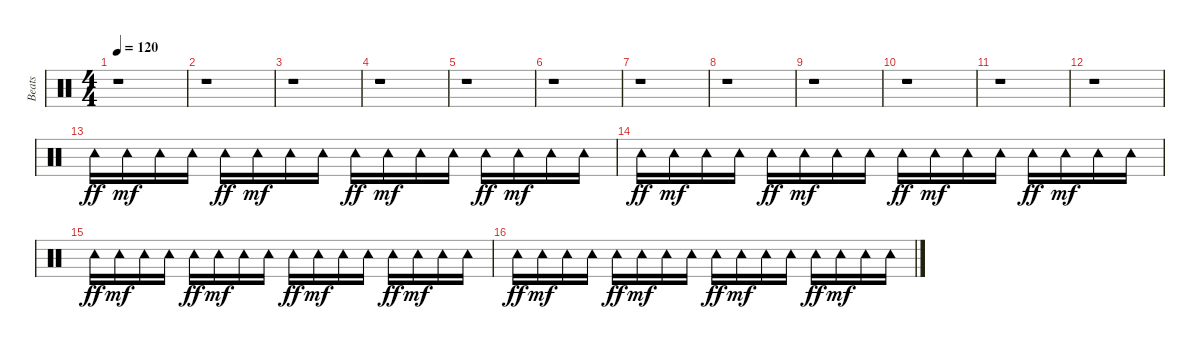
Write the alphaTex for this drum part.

\track ("Beats" "Beats") {instrument percussion}
\staff {score}
\articulation defaults
\ts (4 4)
\tempo 120
\clef neutral
\ks c
r.1{dy mf} |
r.1 |
r.1 |
r.1 |
r.1 |
r.1 |
r.1 |
r.1 |
r.1 |
r.1 |
r.1 |
r.1 |
"Tambourine (hit)".16{dy ff} "Tambourine (hit)".16{dy mf} "Tambourine (hit)".16 "Tambourine (hit)".16 "Tambourine (hit)".16{dy ff} "Tambourine (hit)".16{dy mf} "Tambourine (hit)".16 "Tambourine (hit)".16 "Tambourine (hit)".16{dy ff} "Tambourine (hit)".16{dy mf} "Tambourine (hit)".16 "Tambourine (hit)".16 "Tambourine (hit)".16{dy ff} "Tambourine (hit)".16{dy mf} "Tambourine (hit)".16 "Tambourine (hit)".16 |
"Tambourine (hit)".16{dy ff} "Tambourine (hit)".16{dy mf} "Tambourine (hit)".16 "Tambourine (hit)".16 "Tambourine (hit)".16{dy ff} "Tambourine (hit)".16{dy mf} "Tambourine (hit)".16 "Tambourine (hit)".16 "Tambourine (hit)".16{dy ff} "Tambourine (hit)".16{dy mf} "Tambourine (hit)".16 "Tambourine (hit)".16 "Tambourine (hit)".16{dy ff} "Tambourine (hit)".16{dy mf} "Tambourine (hit)".16 "Tambourine (hit)".16 |
"Tambourine (hit)".16{dy ff} "Tambourine (hit)".16{dy mf} "Tambourine (hit)".16 "Tambourine (hit)".16 "Tambourine (hit)".16{dy ff} "Tambourine (hit)".16{dy mf} "Tambourine (hit)".16 "Tambourine (hit)".16 "Tambourine (hit)".16{dy ff} "Tambourine (hit)".16{dy mf} "Tambourine (hit)".16 "Tambourine (hit)".16 "Tambourine (hit)".16{dy ff} "Tambourine (hit)".16{dy mf} "Tambourine (hit)".16 "Tambourine (hit)".16 |
"Tambourine (hit)".16{dy ff} "Tambourine (hit)".16{dy mf} "Tambourine (hit)".16 "Tambourine (hit)".16 "Tambourine (hit)".16{dy ff} "Tambourine (hit)".16{dy mf} "Tambourine (hit)".16 "Tambourine (hit)".16 "Tambourine (hit)".16{dy ff} "Tambourine (hit)".16{dy mf} "Tambourine (hit)".16 "Tambourine (hit)".16 "Tambourine (hit)".16{dy ff} "Tambourine (hit)".16{dy mf} "Tambourine (hit)".16 "Tambourine (hit)".16
